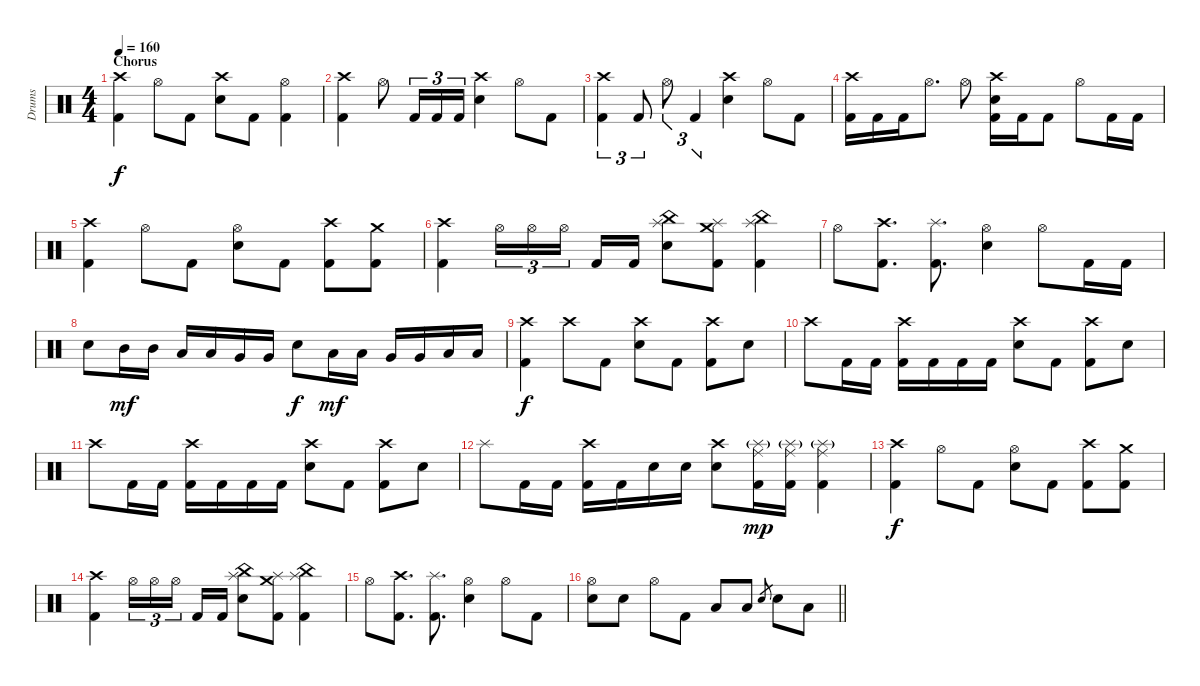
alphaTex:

\track ("Drums" "Drums") {instrument percussion}
\staff {score}
\articulation defaults
\ts (4 4)
\section ("" "Chorus")
\tempo 160
\clef neutral
\ks c
("Crash high (hit)" "Kick (hit) 2").4{dy f} "Hi-Hat (open)".8 "Kick (hit) 2".8 ("Crash high (hit)" "Electric Snare (hit)").8 "Kick (hit) 2".8 ("Hi-Hat (open)" "Kick (hit) 2").4 |
("Crash high (hit)" "Kick (hit) 2").4 "Hi-Hat (open)".8 "Kick (hit) 2".16{tu (3 2)} "Kick (hit) 2".16{tu (3 2)} "Kick (hit) 2".16{tu (3 2)} ("Crash high (hit)" "Electric Snare (hit)").4 "Hi-Hat (open)".8 "Kick (hit) 2".8 |
("Crash high (hit)" "Kick (hit) 2").4{tu (3 2)} "Kick (hit) 2".8{tu (3 2)} "Hi-Hat (open)".8{tu (3 2)} "Kick (hit) 2".4{tu (3 2)} ("Crash high (hit)" "Electric Snare (hit)").4 "Hi-Hat (open)".8 "Kick (hit) 2".8 |
("Crash high (hit)" "Kick (hit) 2").16 "Kick (hit) 2".16 "Kick (hit) 2".16 "Hi-Hat (open)".8{d} "Hi-Hat (open)".8 ("Crash high (hit)" "Electric Snare (hit)" "Kick (hit) 2").16 "Kick (hit) 2".16 "Kick (hit) 2".8 "Hi-Hat (open)".8 "Kick (hit) 2".16 "Kick (hit) 2".16 |
("Crash high (hit)" "Kick (hit) 2").4 "Hi-Hat (open)".8 "Kick (hit) 2".8 ("Hi-Hat (open)" "Electric Snare (hit)").8 "Kick (hit) 2".8 ("Crash high (hit)" "Kick (hit) 2").8 ("Crash medium (hit)" "Kick (hit) 2").8 |
("Crash high (hit)" "Kick (hit) 2").4 "Hi-Hat (open)".16{tu (3 2)} "Hi-Hat (open)".16{tu (3 2)} "Hi-Hat (open)".16{tu (3 2)} "Kick (hit) 2".16 "Kick (hit) 2".16 ("China (hit)" "Splash (hit)" "Electric Snare (hit)").8 ("Crash medium (hit)" "Splash (hit)" "Kick (hit) 2").8 ("China (hit)" "Splash (hit)" "Kick (hit) 2").4 |
"Hi-Hat (open)".8 ("Crash high (hit)" "Kick (hit) 2").8{d} ("Splash (hit)" "Kick (hit) 2").8{d} ("Hi-Hat (open)" "Electric Snare (hit)").4 "Hi-Hat (open)".8 "Kick (hit) 2".16 "Kick (hit) 2".16 |
"Electric Snare (hit)".8 "Mid Tom (hit)".16{dy mf} "Mid Tom (hit)".16 "Low Tom (hit)".16 "Low Tom (hit)".16 "Very Low Tom (hit)".16 "Very Low Tom (hit)".16 "Electric Snare (hit)".8{dy f} "Low Tom (hit)".16{dy mf} "Low Tom (hit)".16 "Very Low Tom (hit)".16 "Very Low Tom (hit)".16 "Low Floor Tom (hit)".16 "Low Floor Tom (hit)".16 |
("Crash high (hit)" "Kick (hit) 2").4{dy f} "Crash high (hit)".8 "Kick (hit) 2".8 ("Crash high (hit)" "Electric Snare (hit)").8 "Kick (hit) 2".8 ("Crash high (hit)" "Kick (hit) 2").8 "Electric Snare (hit)".8 |
"Crash high (hit)".8 "Kick (hit) 2".16 "Kick (hit) 2".16 ("Crash high (hit)" "Kick (hit) 2").16 "Kick (hit) 2".16 "Kick (hit) 2".16 "Kick (hit) 2".16 ("Crash high (hit)" "Electric Snare (hit)").8 "Kick (hit) 2".8 ("Crash high (hit)" "Kick (hit) 2").8 "Electric Snare (hit)".8 |
"Crash high (hit)".8 "Kick (hit) 2".16 "Kick (hit) 2".16 ("Crash high (hit)" "Kick (hit) 2").16 "Kick (hit) 2".16 "Kick (hit) 2".16 "Kick (hit) 2".16 ("Crash high (hit)" "Electric Snare (hit)").8 "Kick (hit) 2".8 ("Crash high (hit)" "Kick (hit) 2").8 "Electric Snare (hit)".8 |
"Splash (hit)".8 "Kick (hit) 2".16 "Kick (hit) 2".16 ("Crash high (hit)" "Kick (hit) 2").16 "Kick (hit) 2".16 "Electric Snare (hit)".16 "Electric Snare (hit)".16 ("Crash high (hit)" "Electric Snare (hit)").8 ("Splash (hit)"{g} "Ride (middle)" "Kick (hit) 2").16{dy mp} ("Splash (hit)"{g} "Ride (middle)" "Kick (hit) 2").16 ("Splash (hit)"{g} "Ride (middle)" "Kick (hit) 2").4 |
("Crash high (hit)" "Kick (hit) 2").4{dy f} "Hi-Hat (open)".8 "Kick (hit) 2".8 ("Hi-Hat (open)" "Electric Snare (hit)").8 "Kick (hit) 2".8 ("Crash high (hit)" "Kick (hit) 2").8 ("Crash medium (hit)" "Kick (hit) 2").8 |
("Crash high (hit)" "Kick (hit) 2").4 "Hi-Hat (open)".16{tu (3 2)} "Hi-Hat (open)".16{tu (3 2)} "Hi-Hat (open)".16{tu (3 2)} "Kick (hit) 2".16 "Kick (hit) 2".16 ("China (hit)" "Splash (hit)" "Electric Snare (hit)").8 ("Crash medium (hit)" "Splash (hit)" "Kick (hit) 2").8 ("China (hit)" "Splash (hit)" "Kick (hit) 2").4 |
"Hi-Hat (open)".8 ("Crash high (hit)" "Kick (hit) 2").8{d} ("Splash (hit)" "Kick (hit) 2").8{d} ("Hi-Hat (open)" "Electric Snare (hit)").4 "Hi-Hat (open)".8 "Kick (hit) 2".8 |
\barLineRight lightlight
("Hi-Hat (open)" "Electric Snare (hit)").8 "Electric Snare (hit)".8 "Hi-Hat (open)".8 "Kick (hit) 2".8 "Low Floor Tom (hit)".8 "Low Floor Tom (hit)".8 "Electric Snare (hit)".8{gr} "Electric Snare (hit)".8 "Low Floor Tom (hit)".8
